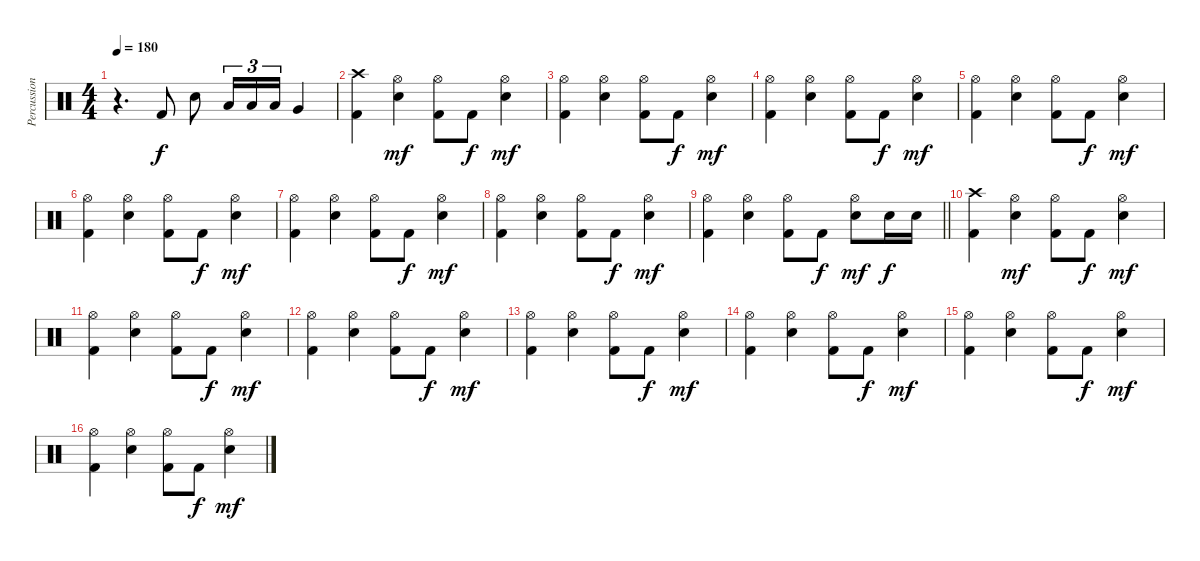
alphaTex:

\track ("Percussion" "Percussion") {instrument percussion}
\staff {score}
\articulation defaults
\ts (4 4)
\tempo 180
\clef neutral
\ks c
r.4{d dy f} "Kick (hit) 2".8 "Electric Snare (hit)".8 "Low Tom (hit)".16{tu (3 2)} "Low Tom (hit)".16{tu (3 2)} "Low Tom (hit)".16{tu (3 2)} "Very Low Tom (hit)".4 |
("Crash high (hit)" "Kick (hit) 2").4 ("Hi-Hat (open)" "Electric Snare (hit)").4{dy mf} ("Hi-Hat (open)" "Kick (hit) 2").8 "Kick (hit) 2".8{dy f} ("Hi-Hat (open)" "Electric Snare (hit)").4{dy mf} |
("Hi-Hat (open)" "Kick (hit) 2").4 ("Hi-Hat (open)" "Electric Snare (hit)").4 ("Hi-Hat (open)" "Kick (hit) 2").8 "Kick (hit) 2".8{dy f} ("Hi-Hat (open)" "Electric Snare (hit)").4{dy mf} |
("Hi-Hat (open)" "Kick (hit) 2").4 ("Hi-Hat (open)" "Electric Snare (hit)").4 ("Hi-Hat (open)" "Kick (hit) 2").8 "Kick (hit) 2".8{dy f} ("Hi-Hat (open)" "Electric Snare (hit)").4{dy mf} |
("Hi-Hat (open)" "Kick (hit) 2").4 ("Hi-Hat (open)" "Electric Snare (hit)").4 ("Hi-Hat (open)" "Kick (hit) 2").8 "Kick (hit) 2".8{dy f} ("Hi-Hat (open)" "Electric Snare (hit)").4{dy mf} |
("Hi-Hat (open)" "Kick (hit) 2").4 ("Hi-Hat (open)" "Electric Snare (hit)").4 ("Hi-Hat (open)" "Kick (hit) 2").8 "Kick (hit) 2".8{dy f} ("Hi-Hat (open)" "Electric Snare (hit)").4{dy mf} |
("Hi-Hat (open)" "Kick (hit) 2").4 ("Hi-Hat (open)" "Electric Snare (hit)").4 ("Hi-Hat (open)" "Kick (hit) 2").8 "Kick (hit) 2".8{dy f} ("Hi-Hat (open)" "Electric Snare (hit)").4{dy mf} |
("Hi-Hat (open)" "Kick (hit) 2").4 ("Hi-Hat (open)" "Electric Snare (hit)").4 ("Hi-Hat (open)" "Kick (hit) 2").8 "Kick (hit) 2".8{dy f} ("Hi-Hat (open)" "Electric Snare (hit)").4{dy mf} |
\barLineRight lightlight
("Hi-Hat (open)" "Kick (hit) 2").4 ("Hi-Hat (open)" "Electric Snare (hit)").4 ("Hi-Hat (open)" "Kick (hit) 2").8 "Kick (hit) 2".8{dy f} ("Hi-Hat (open)" "Electric Snare (hit)").8{dy mf} "Electric Snare (hit)".16{dy f} "Electric Snare (hit)".16 |
("Crash high (hit)" "Kick (hit) 2").4 ("Hi-Hat (open)" "Electric Snare (hit)").4{dy mf} ("Hi-Hat (open)" "Kick (hit) 2").8 "Kick (hit) 2".8{dy f} ("Hi-Hat (open)" "Electric Snare (hit)").4{dy mf} |
("Hi-Hat (open)" "Kick (hit) 2").4 ("Hi-Hat (open)" "Electric Snare (hit)").4 ("Hi-Hat (open)" "Kick (hit) 2").8 "Kick (hit) 2".8{dy f} ("Hi-Hat (open)" "Electric Snare (hit)").4{dy mf} |
("Hi-Hat (open)" "Kick (hit) 2").4 ("Hi-Hat (open)" "Electric Snare (hit)").4 ("Hi-Hat (open)" "Kick (hit) 2").8 "Kick (hit) 2".8{dy f} ("Hi-Hat (open)" "Electric Snare (hit)").4{dy mf} |
("Hi-Hat (open)" "Kick (hit) 2").4 ("Hi-Hat (open)" "Electric Snare (hit)").4 ("Hi-Hat (open)" "Kick (hit) 2").8 "Kick (hit) 2".8{dy f} ("Hi-Hat (open)" "Electric Snare (hit)").4{dy mf} |
("Hi-Hat (open)" "Kick (hit) 2").4 ("Hi-Hat (open)" "Electric Snare (hit)").4 ("Hi-Hat (open)" "Kick (hit) 2").8 "Kick (hit) 2".8{dy f} ("Hi-Hat (open)" "Electric Snare (hit)").4{dy mf} |
("Hi-Hat (open)" "Kick (hit) 2").4 ("Hi-Hat (open)" "Electric Snare (hit)").4 ("Hi-Hat (open)" "Kick (hit) 2").8 "Kick (hit) 2".8{dy f} ("Hi-Hat (open)" "Electric Snare (hit)").4{dy mf} |
("Hi-Hat (open)" "Kick (hit) 2").4 ("Hi-Hat (open)" "Electric Snare (hit)").4 ("Hi-Hat (open)" "Kick (hit) 2").8 "Kick (hit) 2".8{dy f} ("Hi-Hat (open)" "Electric Snare (hit)").4{dy mf}
